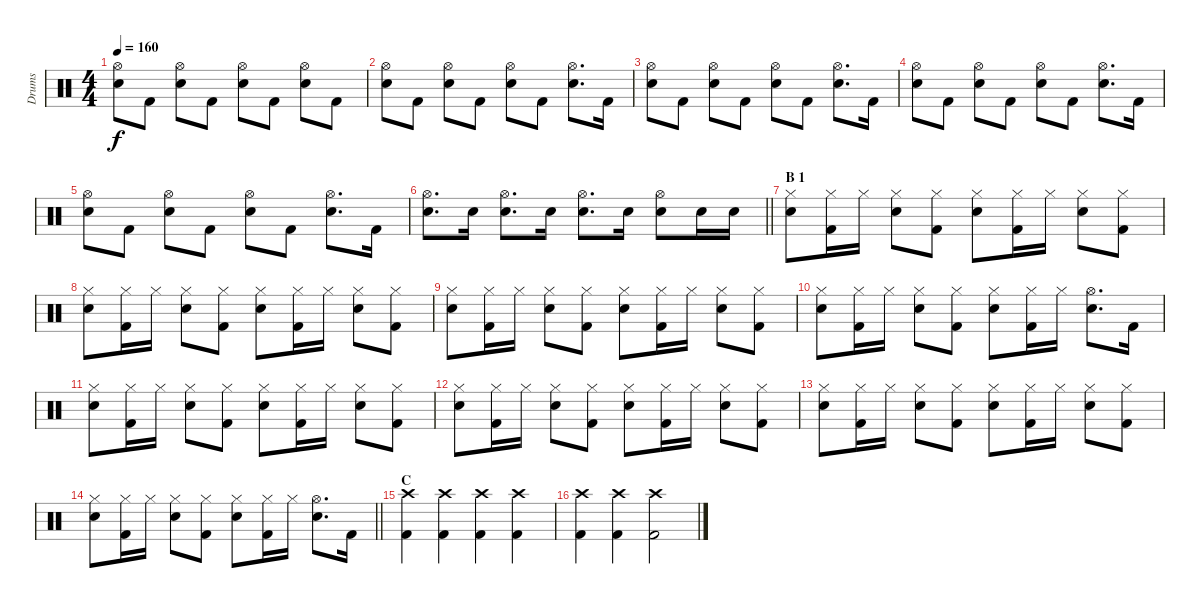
\track ("Drums" "Drums") {instrument percussion}
\staff {score}
\articulation defaults
\ts (4 4)
\tempo 160
\clef neutral
\ks c
("Hi-Hat (open)" "Snare (hit) 2").8{dy f} "Kick (hit) 2".8 ("Hi-Hat (open)" "Snare (hit) 2").8 "Kick (hit) 2".8 ("Hi-Hat (open)" "Snare (hit) 2").8 "Kick (hit) 2".8 ("Hi-Hat (open)" "Snare (hit) 2").8 "Kick (hit) 2".8 |
("Hi-Hat (open)" "Snare (hit) 2").8 "Kick (hit) 2".8 ("Hi-Hat (open)" "Snare (hit) 2").8 "Kick (hit) 2".8 ("Hi-Hat (open)" "Snare (hit) 2").8 "Kick (hit) 2".8 ("Hi-Hat (open)" "Snare (hit) 2").8{d} "Kick (hit) 2".16 |
("Hi-Hat (open)" "Snare (hit) 2").8 "Kick (hit) 2".8 ("Hi-Hat (open)" "Snare (hit) 2").8 "Kick (hit) 2".8 ("Hi-Hat (open)" "Snare (hit) 2").8 "Kick (hit) 2".8 ("Hi-Hat (open)" "Snare (hit) 2").8{d} "Kick (hit) 2".16 |
("Hi-Hat (open)" "Snare (hit) 2").8 "Kick (hit) 2".8 ("Hi-Hat (open)" "Snare (hit) 2").8 "Kick (hit) 2".8 ("Hi-Hat (open)" "Snare (hit) 2").8 "Kick (hit) 2".8 ("Hi-Hat (open)" "Snare (hit) 2").8{d} "Kick (hit) 2".16 |
("Hi-Hat (open)" "Snare (hit) 2").8 "Kick (hit) 2".8 ("Hi-Hat (open)" "Snare (hit) 2").8 "Kick (hit) 2".8 ("Hi-Hat (open)" "Snare (hit) 2").8 "Kick (hit) 2".8 ("Hi-Hat (open)" "Snare (hit) 2").8{d} "Kick (hit) 2".16 |
\barLineRight lightlight
("Hi-Hat (open)" "Snare (hit) 2").8{d} "Snare (hit) 2".16 ("Hi-Hat (open)" "Snare (hit) 2").8{d} "Snare (hit) 2".16 ("Hi-Hat (open)" "Snare (hit) 2").8{d} "Snare (hit) 2".16 ("Hi-Hat (open)" "Snare (hit) 2").8 "Snare (hit) 2".16 "Snare (hit) 2".16 |
\section ("" "B 1")
("Hi-Hat (closed)" "Snare (hit) 2").8 ("Hi-Hat (closed)" "Kick (hit) 2").16 "Hi-Hat (closed)".16 ("Hi-Hat (closed)" "Snare (hit) 2").8 ("Hi-Hat (closed)" "Kick (hit) 2").8 ("Hi-Hat (closed)" "Snare (hit) 2").8 ("Hi-Hat (closed)" "Kick (hit) 2").16 "Hi-Hat (closed)".16 ("Hi-Hat (closed)" "Snare (hit) 2").8 ("Hi-Hat (closed)" "Kick (hit) 2").8 |
("Hi-Hat (closed)" "Snare (hit) 2").8 ("Hi-Hat (closed)" "Kick (hit) 2").16 "Hi-Hat (closed)".16 ("Hi-Hat (closed)" "Snare (hit) 2").8 ("Hi-Hat (closed)" "Kick (hit) 2").8 ("Hi-Hat (closed)" "Snare (hit) 2").8 ("Hi-Hat (closed)" "Kick (hit) 2").16 "Hi-Hat (closed)".16 ("Hi-Hat (closed)" "Snare (hit) 2").8 ("Hi-Hat (closed)" "Kick (hit) 2").8 |
("Hi-Hat (closed)" "Snare (hit) 2").8 ("Hi-Hat (closed)" "Kick (hit) 2").16 "Hi-Hat (closed)".16 ("Hi-Hat (closed)" "Snare (hit) 2").8 ("Hi-Hat (closed)" "Kick (hit) 2").8 ("Hi-Hat (closed)" "Snare (hit) 2").8 ("Hi-Hat (closed)" "Kick (hit) 2").16 "Hi-Hat (closed)".16 ("Hi-Hat (closed)" "Snare (hit) 2").8 ("Hi-Hat (closed)" "Kick (hit) 2").8 |
("Hi-Hat (closed)" "Snare (hit) 2").8 ("Hi-Hat (closed)" "Kick (hit) 2").16 "Hi-Hat (closed)".16 ("Hi-Hat (closed)" "Snare (hit) 2").8 ("Hi-Hat (closed)" "Kick (hit) 2").8 ("Hi-Hat (closed)" "Snare (hit) 2").8 ("Hi-Hat (closed)" "Kick (hit) 2").16 "Hi-Hat (closed)".16 ("Hi-Hat (open)" "Snare (hit) 2").8{d} "Kick (hit) 2".16 |
("Hi-Hat (closed)" "Snare (hit) 2").8 ("Hi-Hat (closed)" "Kick (hit) 2").16 "Hi-Hat (closed)".16 ("Hi-Hat (closed)" "Snare (hit) 2").8 ("Hi-Hat (closed)" "Kick (hit) 2").8 ("Hi-Hat (closed)" "Snare (hit) 2").8 ("Hi-Hat (closed)" "Kick (hit) 2").16 "Hi-Hat (closed)".16 ("Hi-Hat (closed)" "Snare (hit) 2").8 ("Hi-Hat (closed)" "Kick (hit) 2").8 |
("Hi-Hat (closed)" "Snare (hit) 2").8 ("Hi-Hat (closed)" "Kick (hit) 2").16 "Hi-Hat (closed)".16 ("Hi-Hat (closed)" "Snare (hit) 2").8 ("Hi-Hat (closed)" "Kick (hit) 2").8 ("Hi-Hat (closed)" "Snare (hit) 2").8 ("Hi-Hat (closed)" "Kick (hit) 2").16 "Hi-Hat (closed)".16 ("Hi-Hat (closed)" "Snare (hit) 2").8 ("Hi-Hat (closed)" "Kick (hit) 2").8 |
("Hi-Hat (closed)" "Snare (hit) 2").8 ("Hi-Hat (closed)" "Kick (hit) 2").16 "Hi-Hat (closed)".16 ("Hi-Hat (closed)" "Snare (hit) 2").8 ("Hi-Hat (closed)" "Kick (hit) 2").8 ("Hi-Hat (closed)" "Snare (hit) 2").8 ("Hi-Hat (closed)" "Kick (hit) 2").16 "Hi-Hat (closed)".16 ("Hi-Hat (closed)" "Snare (hit) 2").8 ("Hi-Hat (closed)" "Kick (hit) 2").8 |
\barLineRight lightlight
("Hi-Hat (closed)" "Snare (hit) 2").8 ("Hi-Hat (closed)" "Kick (hit) 2").16 "Hi-Hat (closed)".16 ("Hi-Hat (closed)" "Snare (hit) 2").8 ("Hi-Hat (closed)" "Kick (hit) 2").8 ("Hi-Hat (closed)" "Snare (hit) 2").8 ("Hi-Hat (closed)" "Kick (hit) 2").16 "Hi-Hat (closed)".16 ("Hi-Hat (open)" "Snare (hit) 2").8{d} "Kick (hit) 2".16 |
\section ("" "C")
("Crash high (hit)" "Kick (hit) 2").4 ("Crash high (hit)" "Kick (hit) 2").4 ("Crash high (hit)" "Kick (hit) 2").4 ("Crash high (hit)" "Kick (hit) 2").4 |
("Crash high (hit)" "Kick (hit) 2").4 ("Crash high (hit)" "Kick (hit) 2").4 ("Crash high (hit)" "Kick (hit) 2").2
